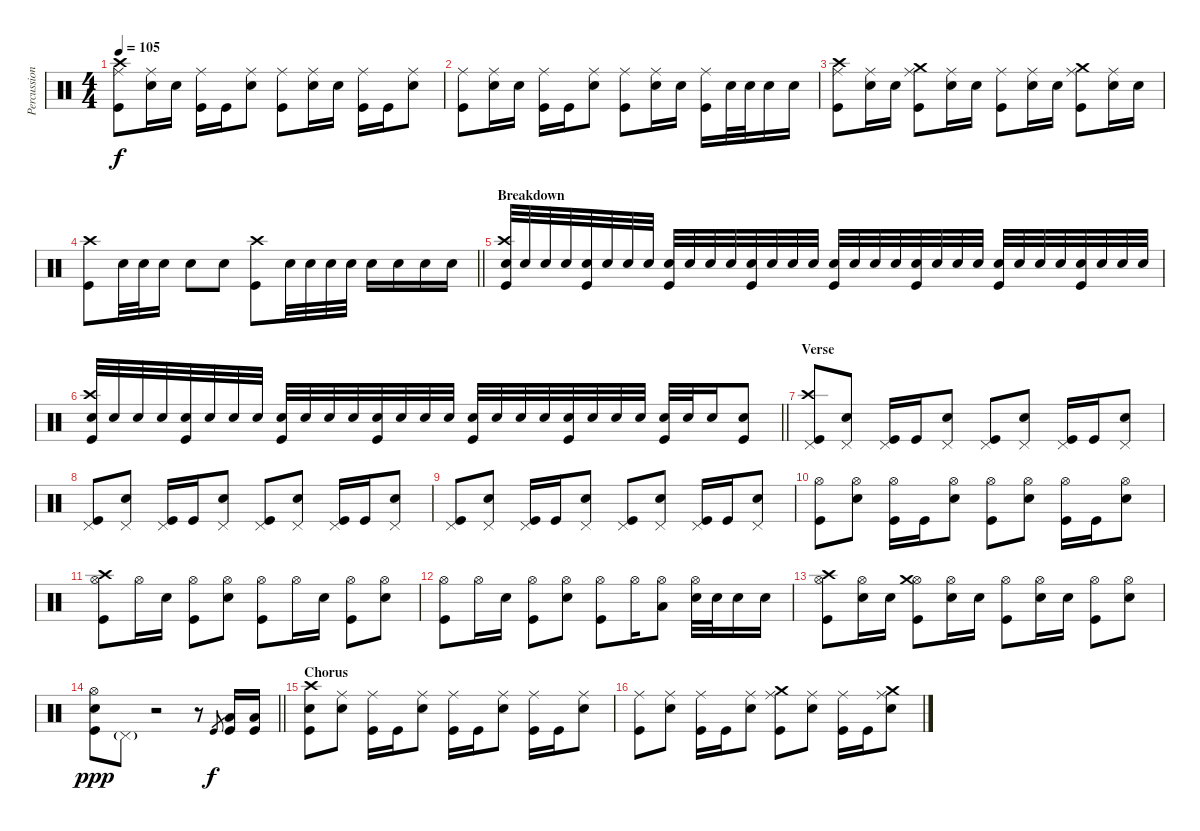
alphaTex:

\track ("Percussion" "Percussion") {instrument percussion}
\staff {score}
\articulation defaults
\ts (4 4)
\tempo 105
\clef neutral
\ks c
("Kick (hit)" "Ride (middle)" "Crash high (hit)").8{dy f} ("Electric Snare (hit)" "Ride (middle)").16 "Electric Snare (hit)".16 ("Kick (hit)" "Ride (middle)").16 "Kick (hit)".16 ("Electric Snare (hit)" "Ride (middle)").8 ("Kick (hit)" "Ride (middle)").8 ("Electric Snare (hit)" "Ride (middle)").16 "Electric Snare (hit)".16 ("Kick (hit)" "Ride (middle)").16 "Kick (hit)".16 ("Electric Snare (hit)" "Ride (middle)").8 |
("Kick (hit)" "Ride (middle)").8 ("Electric Snare (hit)" "Ride (middle)").16 "Electric Snare (hit)".16 ("Kick (hit)" "Ride (middle)").16 "Kick (hit)".16 ("Electric Snare (hit)" "Ride (middle)").8 ("Kick (hit)" "Ride (middle)").8 ("Electric Snare (hit)" "Ride (middle)").16 "Electric Snare (hit)".16 ("Kick (hit)" "Ride (middle)").16 "Electric Snare (hit)".32 "Electric Snare (hit)".32 "Electric Snare (hit)".16 "Electric Snare (hit)".16 |
("Kick (hit)" "Ride (middle)" "Crash high (hit)").8 ("Electric Snare (hit)" "Ride (middle)").16 "Electric Snare (hit)".16 ("Kick (hit)" "Ride (middle)" "Crash medium (hit)").8 ("Electric Snare (hit)" "Ride (middle)").16 "Electric Snare (hit)".16 ("Kick (hit)" "Ride (middle)").8 ("Electric Snare (hit)" "Ride (middle)").16 "Electric Snare (hit)".16 ("Kick (hit)" "Ride (middle)" "Crash medium (hit)").8 ("Electric Snare (hit)" "Ride (middle)").16 "Electric Snare (hit)".16 |
\barLineRight lightlight
("Kick (hit)" "Crash high (hit)").8 "Electric Snare (hit)".32 "Electric Snare (hit)".32 "Electric Snare (hit)".16 "Electric Snare (hit)".8 "Electric Snare (hit)".8 ("Kick (hit)" "Crash high (hit)").8 "Electric Snare (hit)".32 "Electric Snare (hit)".32 "Electric Snare (hit)".32 "Electric Snare (hit)".32 "Electric Snare (hit)".16 "Electric Snare (hit)".16 "Electric Snare (hit)".16 "Electric Snare (hit)".16 |
\section ("" "Breakdown")
("Electric Snare (hit)" "Kick (hit)" "Crash high (hit)").32 "Electric Snare (hit)".32 "Electric Snare (hit)".32 "Electric Snare (hit)".32 ("Electric Snare (hit)" "Kick (hit)").32 "Electric Snare (hit)".32 "Electric Snare (hit)".32 "Electric Snare (hit)".32 ("Electric Snare (hit)" "Kick (hit)").32 "Electric Snare (hit)".32 "Electric Snare (hit)".32 "Electric Snare (hit)".32 ("Electric Snare (hit)" "Kick (hit)").32 "Electric Snare (hit)".32 "Electric Snare (hit)".32 "Electric Snare (hit)".32 ("Electric Snare (hit)" "Kick (hit)").32 "Electric Snare (hit)".32 "Electric Snare (hit)".32 "Electric Snare (hit)".32 ("Electric Snare (hit)" "Kick (hit)").32 "Electric Snare (hit)".32 "Electric Snare (hit)".32 "Electric Snare (hit)".32 ("Electric Snare (hit)" "Kick (hit)").32 "Electric Snare (hit)".32 "Electric Snare (hit)".32 "Electric Snare (hit)".32 ("Electric Snare (hit)" "Kick (hit)").32 "Electric Snare (hit)".32 "Electric Snare (hit)".32 "Electric Snare (hit)".32 |
\barLineRight lightlight
("Electric Snare (hit)" "Kick (hit)" "Crash high (hit)").32 "Electric Snare (hit)".32 "Electric Snare (hit)".32 "Electric Snare (hit)".32 ("Electric Snare (hit)" "Kick (hit)").32 "Electric Snare (hit)".32 "Electric Snare (hit)".32 "Electric Snare (hit)".32 ("Electric Snare (hit)" "Kick (hit)").32 "Electric Snare (hit)".32 "Electric Snare (hit)".32 "Electric Snare (hit)".32 ("Electric Snare (hit)" "Kick (hit)").32 "Electric Snare (hit)".32 "Electric Snare (hit)".32 "Electric Snare (hit)".32 ("Electric Snare (hit)" "Kick (hit)").32 "Electric Snare (hit)".32 "Electric Snare (hit)".32 "Electric Snare (hit)".32 ("Electric Snare (hit)" "Kick (hit)").32 "Electric Snare (hit)".32 "Electric Snare (hit)".32 "Electric Snare (hit)".32 ("Electric Snare (hit)" "Kick (hit)").32 "Electric Snare (hit)".32 "Electric Snare (hit)".16 ("Electric Snare (hit)" "Kick (hit)").8 |
\section ("" "Verse")
("Pedal Hi-Hat (hit)" "Kick (hit)" "Crash high (hit)").8 ("Pedal Hi-Hat (hit)" "Electric Snare (hit)").8 ("Pedal Hi-Hat (hit)" "Kick (hit)").16 "Kick (hit)".16 ("Pedal Hi-Hat (hit)" "Electric Snare (hit)").8 ("Pedal Hi-Hat (hit)" "Kick (hit)").8 ("Pedal Hi-Hat (hit)" "Electric Snare (hit)").8 ("Pedal Hi-Hat (hit)" "Kick (hit)").16 "Kick (hit)".16 ("Pedal Hi-Hat (hit)" "Electric Snare (hit)").8 |
("Pedal Hi-Hat (hit)" "Kick (hit)").8 ("Pedal Hi-Hat (hit)" "Electric Snare (hit)").8 ("Pedal Hi-Hat (hit)" "Kick (hit)").16 "Kick (hit)".16 ("Pedal Hi-Hat (hit)" "Electric Snare (hit)").8 ("Pedal Hi-Hat (hit)" "Kick (hit)").8 ("Pedal Hi-Hat (hit)" "Electric Snare (hit)").8 ("Pedal Hi-Hat (hit)" "Kick (hit)").16 "Kick (hit)".16 ("Pedal Hi-Hat (hit)" "Electric Snare (hit)").8 |
("Pedal Hi-Hat (hit)" "Kick (hit)").8 ("Pedal Hi-Hat (hit)" "Electric Snare (hit)").8 ("Pedal Hi-Hat (hit)" "Kick (hit)").16 "Kick (hit)".16 ("Pedal Hi-Hat (hit)" "Electric Snare (hit)").8 ("Pedal Hi-Hat (hit)" "Kick (hit)").8 ("Pedal Hi-Hat (hit)" "Electric Snare (hit)").8 ("Pedal Hi-Hat (hit)" "Kick (hit)").16 "Kick (hit)".16 ("Pedal Hi-Hat (hit)" "Electric Snare (hit)").8 |
("Hi-Hat (open)" "Kick (hit)").8 ("Hi-Hat (open)" "Electric Snare (hit)").8 ("Hi-Hat (open)" "Kick (hit)").16 "Kick (hit)".16 ("Hi-Hat (open)" "Electric Snare (hit)").8 ("Hi-Hat (open)" "Kick (hit)").8 ("Hi-Hat (open)" "Electric Snare (hit)").8 ("Hi-Hat (open)" "Kick (hit)").16 "Kick (hit)".16 ("Hi-Hat (open)" "Electric Snare (hit)").8 |
("Hi-Hat (open)" "Kick (hit)" "Crash high (hit)").8 "Hi-Hat (open)".16 "Electric Snare (hit)".16 ("Hi-Hat (open)" "Kick (hit)").8 ("Hi-Hat (open)" "Electric Snare (hit)").8 ("Hi-Hat (open)" "Kick (hit)").8 "Hi-Hat (open)".16 "Electric Snare (hit)".16 ("Hi-Hat (open)" "Kick (hit)").8 ("Hi-Hat (open)" "Electric Snare (hit)").8 |
("Hi-Hat (open)" "Kick (hit)").8 "Hi-Hat (open)".16 "Electric Snare (hit)".16 ("Hi-Hat (open)" "Kick (hit)").8 ("Hi-Hat (open)" "Electric Snare (hit)").8 ("Hi-Hat (open)" "Kick (hit)").8 "Hi-Hat (open)".16 ("Hi-Hat (open)" "Low Floor Tom (hit)").8 ("Hi-Hat (open)" "Electric Snare (hit)").32 "Electric Snare (hit)".32 "Electric Snare (hit)".16 "Electric Snare (hit)".16 |
("Hi-Hat (open)" "Kick (hit)" "Crash high (hit)").8 ("Hi-Hat (open)" "Electric Snare (hit)").16 "Electric Snare (hit)".16 ("Hi-Hat (open)" "Kick (hit)" "Crash medium (hit)").8 ("Hi-Hat (open)" "Electric Snare (hit)").16 "Electric Snare (hit)".16 ("Hi-Hat (open)" "Kick (hit)").8 ("Hi-Hat (open)" "Electric Snare (hit)").16 "Electric Snare (hit)".16 ("Hi-Hat (open)" "Kick (hit)").8 ("Hi-Hat (open)" "Electric Snare (hit)").8 |
\barLineRight lightlight
("Hi-Hat (open)" "Electric Snare (hit)" "Kick (hit)").8{dy ppp} "Pedal Hi-Hat (hit)"{g}.8 r.2 r.8 "Kick (hit)".8{gr dy f} ("Kick (hit)" "Low Floor Tom (hit)").16 ("Kick (hit)" "Low Floor Tom (hit)").16 |
\section ("" "Chorus")
("Electric Snare (hit)" "Kick (hit)" "Crash high (hit)").8 ("Electric Snare (hit)" "Ride (middle)").8 ("Kick (hit)" "Ride (middle)").16 "Kick (hit)".16 ("Electric Snare (hit)" "Ride (middle)").8 ("Kick (hit)" "Ride (middle)").16 "Kick (hit)".16 ("Electric Snare (hit)" "Ride (middle)").8 ("Kick (hit)" "Ride (middle)").16 "Kick (hit)".16 ("Electric Snare (hit)" "Ride (middle)").8 |
("Kick (hit)" "Ride (middle)").8 ("Electric Snare (hit)" "Ride (middle)").8 ("Kick (hit)" "Ride (middle)").16 "Kick (hit)".16 ("Electric Snare (hit)" "Ride (middle)").8 ("Kick (hit)" "Ride (middle)" "Crash medium (hit)").8 ("Electric Snare (hit)" "Ride (middle)").8 ("Kick (hit)" "Ride (middle)").16 "Kick (hit)".16 ("Electric Snare (hit)" "Ride (middle)" "Crash medium (hit)").8
